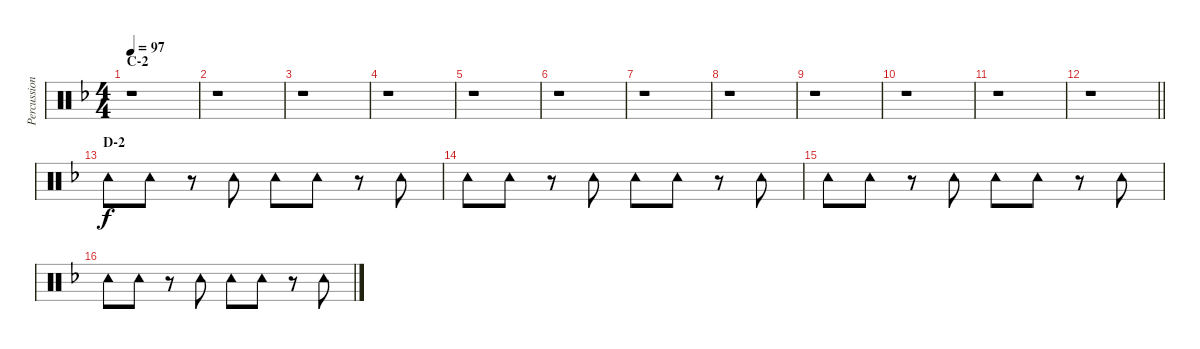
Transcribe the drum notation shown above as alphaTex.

\track ("Percussion" "Percussion") {instrument percussion}
\staff {score}
\articulation defaults
\ts (4 4)
\section ("" "C-2")
\tempo 97
\clef neutral
\ks f
r.1{dy f} |
r.1 |
r.1 |
r.1 |
r.1 |
r.1 |
r.1 |
r.1 |
r.1 |
r.1 |
r.1 |
\barLineRight lightlight
r.1 |
\section ("" "D-2")
"Tambourine (hit)".8 "Tambourine (hit)".8 r.8 "Tambourine (hit)".8 "Tambourine (hit)".8 "Tambourine (hit)".8 r.8 "Tambourine (hit)".8 |
"Tambourine (hit)".8 "Tambourine (hit)".8 r.8 "Tambourine (hit)".8 "Tambourine (hit)".8 "Tambourine (hit)".8 r.8 "Tambourine (hit)".8 |
"Tambourine (hit)".8 "Tambourine (hit)".8 r.8 "Tambourine (hit)".8 "Tambourine (hit)".8 "Tambourine (hit)".8 r.8 "Tambourine (hit)".8 |
"Tambourine (hit)".8 "Tambourine (hit)".8 r.8 "Tambourine (hit)".8 "Tambourine (hit)".8 "Tambourine (hit)".8 r.8 "Tambourine (hit)".8
